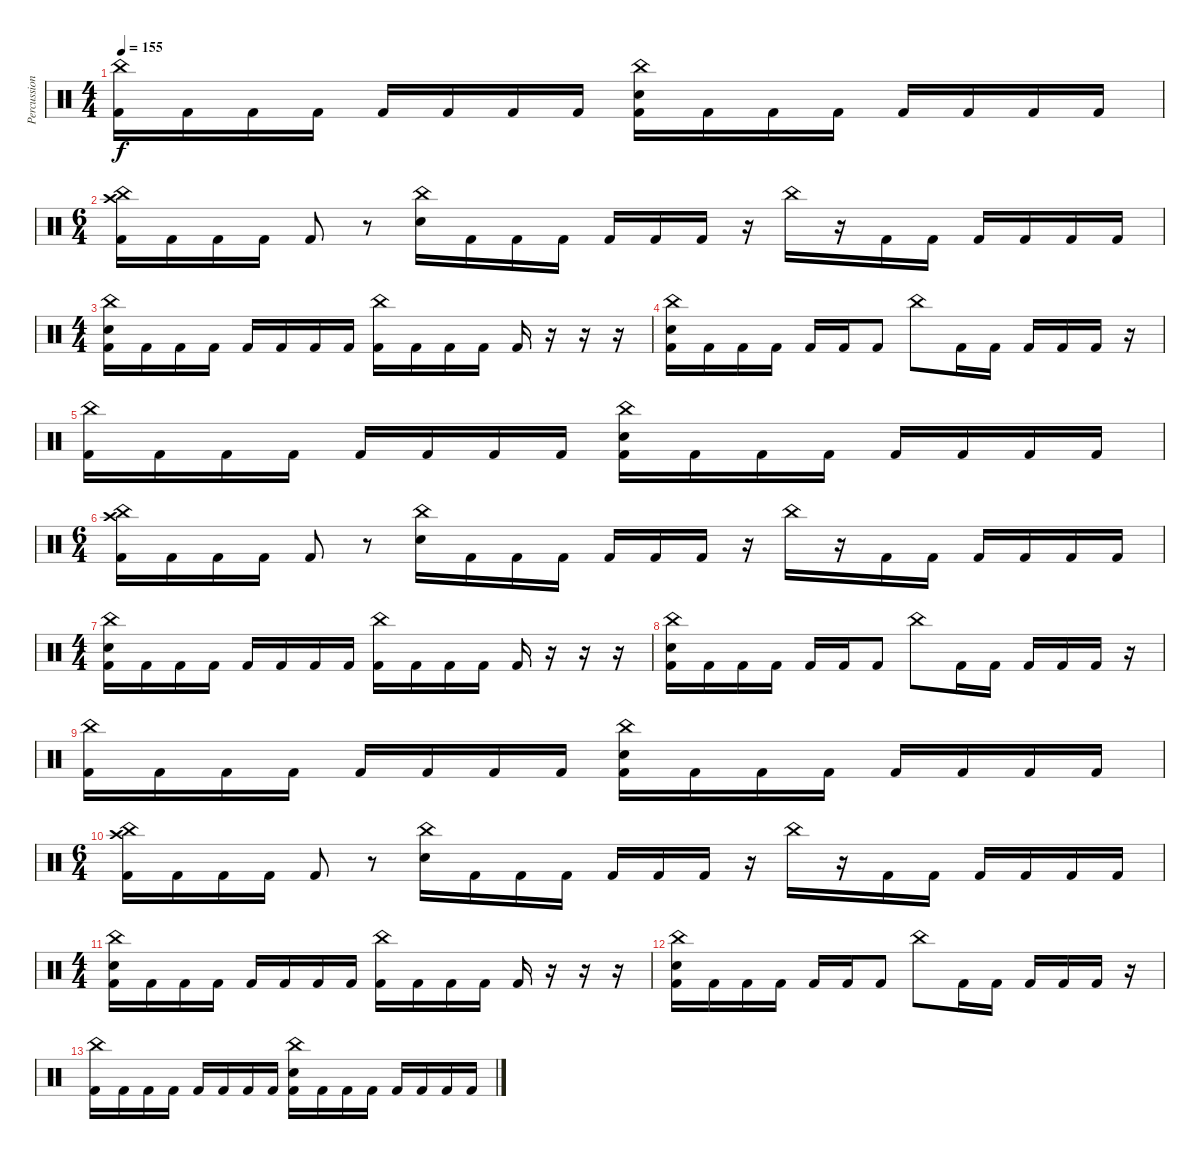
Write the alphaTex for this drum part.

\track ("Percussion" "Percussion") {instrument percussion}
\staff {score}
\articulation defaults
\ts (4 4)
\tempo 155
\clef neutral
\ks c
("China (hit)" "Kick (hit) 2").16{dy f} "Kick (hit) 2".16 "Kick (hit) 2".16 "Kick (hit) 2".16 "Kick (hit) 2".16 "Kick (hit) 2".16 "Kick (hit) 2".16 "Kick (hit) 2".16 ("China (hit)" "Electric Snare (hit)" "Kick (hit) 2").16 "Kick (hit) 2".16 "Kick (hit) 2".16 "Kick (hit) 2".16 "Kick (hit) 2".16 "Kick (hit) 2".16 "Kick (hit) 2".16 "Kick (hit) 2".16 |
\ts (6 4)
("Crash high (hit)" "China (hit)" "Kick (hit) 2").16 "Kick (hit) 2".16 "Kick (hit) 2".16 "Kick (hit) 2".16 "Kick (hit) 2".8 r.8 ("China (hit)" "Electric Snare (hit)").16 "Kick (hit) 2".16 "Kick (hit) 2".16 "Kick (hit) 2".16 "Kick (hit) 2".16 "Kick (hit) 2".16 "Kick (hit) 2".16 r.16 "China (hit)".16 r.16 "Kick (hit) 2".16 "Kick (hit) 2".16 "Kick (hit) 2".16 "Kick (hit) 2".16 "Kick (hit) 2".16 "Kick (hit) 2".16 |
\ts (4 4)
("China (hit)" "Electric Snare (hit)" "Kick (hit) 2").16 "Kick (hit) 2".16 "Kick (hit) 2".16 "Kick (hit) 2".16 "Kick (hit) 2".16 "Kick (hit) 2".16 "Kick (hit) 2".16 "Kick (hit) 2".16 ("China (hit)" "Kick (hit) 2").16 "Kick (hit) 2".16 "Kick (hit) 2".16 "Kick (hit) 2".16 "Kick (hit) 2".16 r.16 r.16 r.16 |
("Electric Snare (hit)" "China (hit)" "Kick (hit) 2").16 "Kick (hit) 2".16 "Kick (hit) 2".16 "Kick (hit) 2".16 "Kick (hit) 2".16 "Kick (hit) 2".16 "Kick (hit) 2".8 "China (hit)".8 "Kick (hit) 2".16 "Kick (hit) 2".16 "Kick (hit) 2".16 "Kick (hit) 2".16 "Kick (hit) 2".16 r.16 |
("China (hit)" "Kick (hit) 2").16 "Kick (hit) 2".16 "Kick (hit) 2".16 "Kick (hit) 2".16 "Kick (hit) 2".16 "Kick (hit) 2".16 "Kick (hit) 2".16 "Kick (hit) 2".16 ("China (hit)" "Electric Snare (hit)" "Kick (hit) 2").16 "Kick (hit) 2".16 "Kick (hit) 2".16 "Kick (hit) 2".16 "Kick (hit) 2".16 "Kick (hit) 2".16 "Kick (hit) 2".16 "Kick (hit) 2".16 |
\ts (6 4)
("Crash high (hit)" "China (hit)" "Kick (hit) 2").16 "Kick (hit) 2".16 "Kick (hit) 2".16 "Kick (hit) 2".16 "Kick (hit) 2".8 r.8 ("China (hit)" "Electric Snare (hit)").16 "Kick (hit) 2".16 "Kick (hit) 2".16 "Kick (hit) 2".16 "Kick (hit) 2".16 "Kick (hit) 2".16 "Kick (hit) 2".16 r.16 "China (hit)".16 r.16 "Kick (hit) 2".16 "Kick (hit) 2".16 "Kick (hit) 2".16 "Kick (hit) 2".16 "Kick (hit) 2".16 "Kick (hit) 2".16 |
\ts (4 4)
("China (hit)" "Electric Snare (hit)" "Kick (hit) 2").16 "Kick (hit) 2".16 "Kick (hit) 2".16 "Kick (hit) 2".16 "Kick (hit) 2".16 "Kick (hit) 2".16 "Kick (hit) 2".16 "Kick (hit) 2".16 ("China (hit)" "Kick (hit) 2").16 "Kick (hit) 2".16 "Kick (hit) 2".16 "Kick (hit) 2".16 "Kick (hit) 2".16 r.16 r.16 r.16 |
("Electric Snare (hit)" "China (hit)" "Kick (hit) 2").16 "Kick (hit) 2".16 "Kick (hit) 2".16 "Kick (hit) 2".16 "Kick (hit) 2".16 "Kick (hit) 2".16 "Kick (hit) 2".8 "China (hit)".8 "Kick (hit) 2".16 "Kick (hit) 2".16 "Kick (hit) 2".16 "Kick (hit) 2".16 "Kick (hit) 2".16 r.16 |
("China (hit)" "Kick (hit) 2").16 "Kick (hit) 2".16 "Kick (hit) 2".16 "Kick (hit) 2".16 "Kick (hit) 2".16 "Kick (hit) 2".16 "Kick (hit) 2".16 "Kick (hit) 2".16 ("China (hit)" "Electric Snare (hit)" "Kick (hit) 2").16 "Kick (hit) 2".16 "Kick (hit) 2".16 "Kick (hit) 2".16 "Kick (hit) 2".16 "Kick (hit) 2".16 "Kick (hit) 2".16 "Kick (hit) 2".16 |
\ts (6 4)
("Crash high (hit)" "China (hit)" "Kick (hit) 2").16 "Kick (hit) 2".16 "Kick (hit) 2".16 "Kick (hit) 2".16 "Kick (hit) 2".8 r.8 ("China (hit)" "Electric Snare (hit)").16 "Kick (hit) 2".16 "Kick (hit) 2".16 "Kick (hit) 2".16 "Kick (hit) 2".16 "Kick (hit) 2".16 "Kick (hit) 2".16 r.16 "China (hit)".16 r.16 "Kick (hit) 2".16 "Kick (hit) 2".16 "Kick (hit) 2".16 "Kick (hit) 2".16 "Kick (hit) 2".16 "Kick (hit) 2".16 |
\ts (4 4)
("China (hit)" "Electric Snare (hit)" "Kick (hit) 2").16 "Kick (hit) 2".16 "Kick (hit) 2".16 "Kick (hit) 2".16 "Kick (hit) 2".16 "Kick (hit) 2".16 "Kick (hit) 2".16 "Kick (hit) 2".16 ("China (hit)" "Kick (hit) 2").16 "Kick (hit) 2".16 "Kick (hit) 2".16 "Kick (hit) 2".16 "Kick (hit) 2".16 r.16 r.16 r.16 |
("Electric Snare (hit)" "China (hit)" "Kick (hit) 2").16 "Kick (hit) 2".16 "Kick (hit) 2".16 "Kick (hit) 2".16 "Kick (hit) 2".16 "Kick (hit) 2".16 "Kick (hit) 2".8 "China (hit)".8 "Kick (hit) 2".16 "Kick (hit) 2".16 "Kick (hit) 2".16 "Kick (hit) 2".16 "Kick (hit) 2".16 r.16 |
("China (hit)" "Kick (hit) 2").16 "Kick (hit) 2".16 "Kick (hit) 2".16 "Kick (hit) 2".16 "Kick (hit) 2".16 "Kick (hit) 2".16 "Kick (hit) 2".16 "Kick (hit) 2".16 ("China (hit)" "Electric Snare (hit)" "Kick (hit) 2").16 "Kick (hit) 2".16 "Kick (hit) 2".16 "Kick (hit) 2".16 "Kick (hit) 2".16 "Kick (hit) 2".16 "Kick (hit) 2".16 "Kick (hit) 2".16
